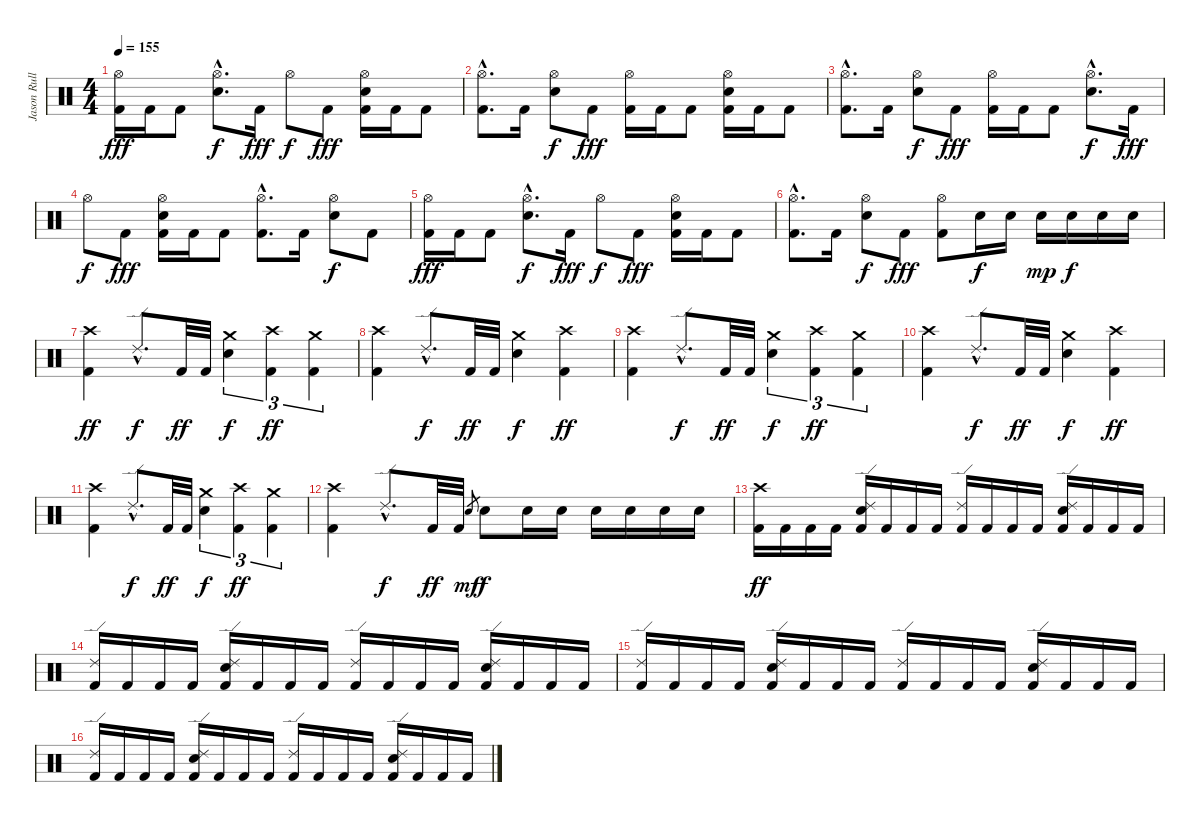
\track ("Jason Rullo" "Jason Rull") {instrument percussion}
\staff {score}
\articulation defaults
\ts (4 4)
\tempo 155
\clef neutral
\ks c
("Hi-Hat (open)" "Kick (hit) 2").16{dy fff} "Kick (hit) 2".16 "Kick (hit) 2".8 ("Hi-Hat (open)"{hac} "Electric Snare (hit)"{hac}).8{d dy f} "Kick (hit) 2".16{dy fff} "Hi-Hat (open)".8{dy f} "Kick (hit) 2".8{dy fff} ("Hi-Hat (open)" "Electric Snare (hit)" "Kick (hit) 2").16 "Kick (hit) 2".16 "Kick (hit) 2".8 |
("Hi-Hat (open)"{hac} "Kick (hit) 2"{hac}).8{d} "Kick (hit) 2".16 ("Hi-Hat (open)" "Electric Snare (hit)").8{dy f} "Kick (hit) 2".8{dy fff} ("Hi-Hat (open)" "Kick (hit) 2").16 "Kick (hit) 2".16 "Kick (hit) 2".8 ("Hi-Hat (open)" "Electric Snare (hit)" "Kick (hit) 2").16 "Kick (hit) 2".16 "Kick (hit) 2".8 |
("Hi-Hat (open)"{hac} "Kick (hit) 2"{hac}).8{d} "Kick (hit) 2".16 ("Hi-Hat (open)" "Electric Snare (hit)").8{dy f} "Kick (hit) 2".8{dy fff} ("Hi-Hat (open)" "Kick (hit) 2").16 "Kick (hit) 2".16 "Kick (hit) 2".8 ("Hi-Hat (open)"{hac} "Electric Snare (hit)"{hac}).8{d dy f} "Kick (hit) 2".16{dy fff} |
"Hi-Hat (open)".8{dy f} "Kick (hit) 2".8{dy fff} ("Hi-Hat (open)" "Electric Snare (hit)" "Kick (hit) 2").16 "Kick (hit) 2".16 "Kick (hit) 2".8 ("Hi-Hat (open)"{hac} "Kick (hit) 2"{hac}).8{d} "Kick (hit) 2".16 ("Hi-Hat (open)" "Electric Snare (hit)").8{dy f} "Kick (hit) 2".8 |
("Hi-Hat (open)" "Kick (hit) 2").16{dy fff} "Kick (hit) 2".16 "Kick (hit) 2".8 ("Hi-Hat (open)"{hac} "Electric Snare (hit)"{hac}).8{d dy f} "Kick (hit) 2".16{dy fff} "Hi-Hat (open)".8{dy f} "Kick (hit) 2".8{dy fff} ("Hi-Hat (open)" "Electric Snare (hit)" "Kick (hit) 2").16 "Kick (hit) 2".16 "Kick (hit) 2".8 |
("Hi-Hat (open)"{hac} "Kick (hit) 2"{hac}).8{d} "Kick (hit) 2".16 ("Hi-Hat (open)" "Electric Snare (hit)").8{dy f} "Kick (hit) 2".8{dy fff} ("Hi-Hat (open)" "Kick (hit) 2").8 "Electric Snare (hit)".16{dy f} "Electric Snare (hit)".16 "Electric Snare (hit)".16{dy mp} "Electric Snare (hit)".16{dy f} "Electric Snare (hit)".16 "Electric Snare (hit)".16 |
("Crash high (hit)" "Kick (hit) 2").4{dy ff} "Ride (edge) 2"{hac}.8{d dy f} "Kick (hit) 2".32{dy ff} "Kick (hit) 2".32 ("Crash medium (hit)" "Electric Snare (hit)").4{tu (3 2) dy f} ("Crash high (hit)" "Kick (hit) 2").4{tu (3 2) dy ff} ("Crash medium (hit)" "Kick (hit) 2").4{tu (3 2)} |
("Crash high (hit)" "Kick (hit) 2").4 "Ride (edge) 2"{hac}.8{d dy f} "Kick (hit) 2".32{dy ff} "Kick (hit) 2".32 ("Crash medium (hit)" "Electric Snare (hit)").4{dy f} ("Crash high (hit)" "Kick (hit) 2").4{dy ff} |
("Crash high (hit)" "Kick (hit) 2").4 "Ride (edge) 2"{hac}.8{d dy f} "Kick (hit) 2".32{dy ff} "Kick (hit) 2".32 ("Crash medium (hit)" "Electric Snare (hit)").4{tu (3 2) dy f} ("Crash high (hit)" "Kick (hit) 2").4{tu (3 2) dy ff} ("Crash medium (hit)" "Kick (hit) 2").4{tu (3 2)} |
("Crash high (hit)" "Kick (hit) 2").4 "Ride (edge) 2"{hac}.8{d dy f} "Kick (hit) 2".32{dy ff} "Kick (hit) 2".32 ("Crash medium (hit)" "Electric Snare (hit)").4{dy f} ("Crash high (hit)" "Kick (hit) 2").4{dy ff} |
("Crash high (hit)" "Kick (hit) 2").4 "Ride (edge) 2"{hac}.8{d dy f} "Kick (hit) 2".32{dy ff} "Kick (hit) 2".32 ("Crash medium (hit)" "Electric Snare (hit)").4{tu (3 2) dy f} ("Crash high (hit)" "Kick (hit) 2").4{tu (3 2) dy ff} ("Crash medium (hit)" "Kick (hit) 2").4{tu (3 2)} |
("Crash high (hit)" "Kick (hit) 2").4 "Ride (edge) 2"{hac}.8{d dy f} "Kick (hit) 2".32{dy ff} "Kick (hit) 2".32 "Electric Snare (hit)".8{gr dy mf} "Electric Snare (hit)".8{dy f} "Electric Snare (hit)".16 "Electric Snare (hit)".16 "Electric Snare (hit)".16 "Electric Snare (hit)".16 "Electric Snare (hit)".16 "Electric Snare (hit)".16 |
("Crash high (hit)" "Kick (hit) 2").16{dy ff} "Kick (hit) 2".16 "Kick (hit) 2".16 "Kick (hit) 2".16 ("Ride (edge) 2" "Electric Snare (hit)" "Kick (hit) 2").16 "Kick (hit) 2".16 "Kick (hit) 2".16 "Kick (hit) 2".16 ("Ride (edge) 2" "Kick (hit) 2").16 "Kick (hit) 2".16 "Kick (hit) 2".16 "Kick (hit) 2".16 ("Ride (edge) 2" "Electric Snare (hit)" "Kick (hit) 2").16 "Kick (hit) 2".16 "Kick (hit) 2".16 "Kick (hit) 2".16 |
("Ride (edge) 2" "Kick (hit) 2").16 "Kick (hit) 2".16 "Kick (hit) 2".16 "Kick (hit) 2".16 ("Ride (edge) 2" "Electric Snare (hit)" "Kick (hit) 2").16 "Kick (hit) 2".16 "Kick (hit) 2".16 "Kick (hit) 2".16 ("Ride (edge) 2" "Kick (hit) 2").16 "Kick (hit) 2".16 "Kick (hit) 2".16 "Kick (hit) 2".16 ("Ride (edge) 2" "Electric Snare (hit)" "Kick (hit) 2").16 "Kick (hit) 2".16 "Kick (hit) 2".16 "Kick (hit) 2".16 |
("Ride (edge) 2" "Kick (hit) 2").16 "Kick (hit) 2".16 "Kick (hit) 2".16 "Kick (hit) 2".16 ("Ride (edge) 2" "Electric Snare (hit)" "Kick (hit) 2").16 "Kick (hit) 2".16 "Kick (hit) 2".16 "Kick (hit) 2".16 ("Ride (edge) 2" "Kick (hit) 2").16 "Kick (hit) 2".16 "Kick (hit) 2".16 "Kick (hit) 2".16 ("Ride (edge) 2" "Electric Snare (hit)" "Kick (hit) 2").16 "Kick (hit) 2".16 "Kick (hit) 2".16 "Kick (hit) 2".16 |
("Ride (edge) 2" "Kick (hit) 2").16 "Kick (hit) 2".16 "Kick (hit) 2".16 "Kick (hit) 2".16 ("Ride (edge) 2" "Electric Snare (hit)" "Kick (hit) 2").16 "Kick (hit) 2".16 "Kick (hit) 2".16 "Kick (hit) 2".16 ("Ride (edge) 2" "Kick (hit) 2").16 "Kick (hit) 2".16 "Kick (hit) 2".16 "Kick (hit) 2".16 ("Ride (edge) 2" "Electric Snare (hit)" "Kick (hit) 2").16 "Kick (hit) 2".16 "Kick (hit) 2".16 "Kick (hit) 2".16
